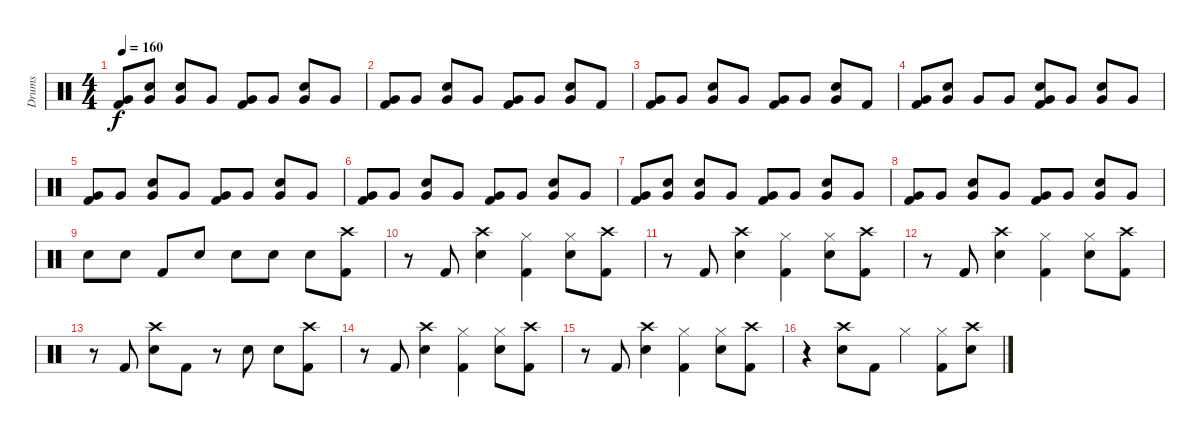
\track ("Drums" "Drums") {instrument percussion}
\staff {score}
\articulation defaults
\ts (4 4)
\tempo 160
\clef neutral
\ks c
("Very Low Tom (hit)" "Kick (hit) 2").8{dy f} ("Electric Snare (hit)" "Very Low Tom (hit)").8 ("Electric Snare (hit)" "Very Low Tom (hit)").8 "Very Low Tom (hit)".8 ("Very Low Tom (hit)" "Kick (hit) 2").8 "Very Low Tom (hit)".8 ("Electric Snare (hit)" "Very Low Tom (hit)").8 "Very Low Tom (hit)".8 |
("Very Low Tom (hit)" "Kick (hit) 2").8 "Very Low Tom (hit)".8 ("Electric Snare (hit)" "Very Low Tom (hit)").8 "Very Low Tom (hit)".8 ("Very Low Tom (hit)" "Kick (hit) 2").8 "Very Low Tom (hit)".8 ("Electric Snare (hit)" "Very Low Tom (hit)").8 "Kick (hit) 2".8 |
("Very Low Tom (hit)" "Kick (hit) 2").8 "Very Low Tom (hit)".8 ("Electric Snare (hit)" "Very Low Tom (hit)").8 "Very Low Tom (hit)".8 ("Very Low Tom (hit)" "Kick (hit) 2").8 "Very Low Tom (hit)".8 ("Electric Snare (hit)" "Very Low Tom (hit)").8 "Kick (hit) 2".8 |
("Very Low Tom (hit)" "Kick (hit) 2").8 ("Electric Snare (hit)" "Very Low Tom (hit)").8 "Very Low Tom (hit)".8 "Very Low Tom (hit)".8 ("Electric Snare (hit)" "Very Low Tom (hit)" "Kick (hit) 2").8 "Very Low Tom (hit)".8 ("Electric Snare (hit)" "Very Low Tom (hit)").8 "Very Low Tom (hit)".8 |
("Very Low Tom (hit)" "Kick (hit) 2").8 "Very Low Tom (hit)".8 ("Electric Snare (hit)" "Very Low Tom (hit)").8 "Very Low Tom (hit)".8 ("Very Low Tom (hit)" "Kick (hit) 2").8 "Very Low Tom (hit)".8 ("Electric Snare (hit)" "Very Low Tom (hit)").8 "Very Low Tom (hit)".8 |
("Very Low Tom (hit)" "Kick (hit) 2").8 "Very Low Tom (hit)".8 ("Electric Snare (hit)" "Very Low Tom (hit)").8 "Very Low Tom (hit)".8 ("Very Low Tom (hit)" "Kick (hit) 2").8 "Very Low Tom (hit)".8 ("Electric Snare (hit)" "Very Low Tom (hit)").8 "Very Low Tom (hit)".8 |
("Very Low Tom (hit)" "Kick (hit) 2").8 ("Electric Snare (hit)" "Very Low Tom (hit)").8 ("Electric Snare (hit)" "Very Low Tom (hit)").8 "Very Low Tom (hit)".8 ("Very Low Tom (hit)" "Kick (hit) 2").8 "Very Low Tom (hit)".8 ("Electric Snare (hit)" "Very Low Tom (hit)").8 "Very Low Tom (hit)".8 |
("Very Low Tom (hit)" "Kick (hit) 2").8 "Very Low Tom (hit)".8 ("Electric Snare (hit)" "Very Low Tom (hit)").8 "Very Low Tom (hit)".8 ("Very Low Tom (hit)" "Kick (hit) 2").8 "Very Low Tom (hit)".8 ("Electric Snare (hit)" "Very Low Tom (hit)").8 "Very Low Tom (hit)".8 |
"Electric Snare (hit)".8 "Electric Snare (hit)".8 "Kick (hit) 2".8 "Electric Snare (hit)".8 "Electric Snare (hit)".8 "Electric Snare (hit)".8 "Electric Snare (hit)".8 ("Crash high (hit)" "Kick (hit) 2").8 |
r.8 "Kick (hit) 2".8 ("Crash high (hit)" "Electric Snare (hit)").4 ("Hi-Hat (closed)" "Kick (hit) 2").4 ("Hi-Hat (closed)" "Electric Snare (hit)").8 ("Crash high (hit)" "Kick (hit) 2").8 |
r.8 "Kick (hit) 2".8 ("Crash high (hit)" "Electric Snare (hit)").4 ("Hi-Hat (closed)" "Kick (hit) 2").4 ("Hi-Hat (closed)" "Electric Snare (hit)").8 ("Crash high (hit)" "Kick (hit) 2").8 |
r.8 "Kick (hit) 2".8 ("Crash high (hit)" "Electric Snare (hit)").4 ("Hi-Hat (closed)" "Kick (hit) 2").4 ("Hi-Hat (closed)" "Electric Snare (hit)").8 ("Crash high (hit)" "Kick (hit) 2").8 |
r.8 "Kick (hit) 2".8 ("Crash high (hit)" "Electric Snare (hit)").8 "Kick (hit) 2".8 r.8 "Electric Snare (hit)".8 "Electric Snare (hit)".8 ("Crash high (hit)" "Kick (hit) 2").8 |
r.8 "Kick (hit) 2".8 ("Crash high (hit)" "Electric Snare (hit)").4 ("Hi-Hat (closed)" "Kick (hit) 2").4 ("Hi-Hat (closed)" "Electric Snare (hit)").8 ("Crash high (hit)" "Kick (hit) 2").8 |
r.8 "Kick (hit) 2".8 ("Crash high (hit)" "Electric Snare (hit)").4 ("Hi-Hat (closed)" "Kick (hit) 2").4 ("Hi-Hat (closed)" "Electric Snare (hit)").8 ("Crash high (hit)" "Kick (hit) 2").8 |
r.4 ("Crash high (hit)" "Electric Snare (hit)").8 "Kick (hit) 2".8 "Hi-Hat (closed)".4 ("Hi-Hat (closed)" "Kick (hit) 2").8 ("Crash high (hit)" "Electric Snare (hit)").8
